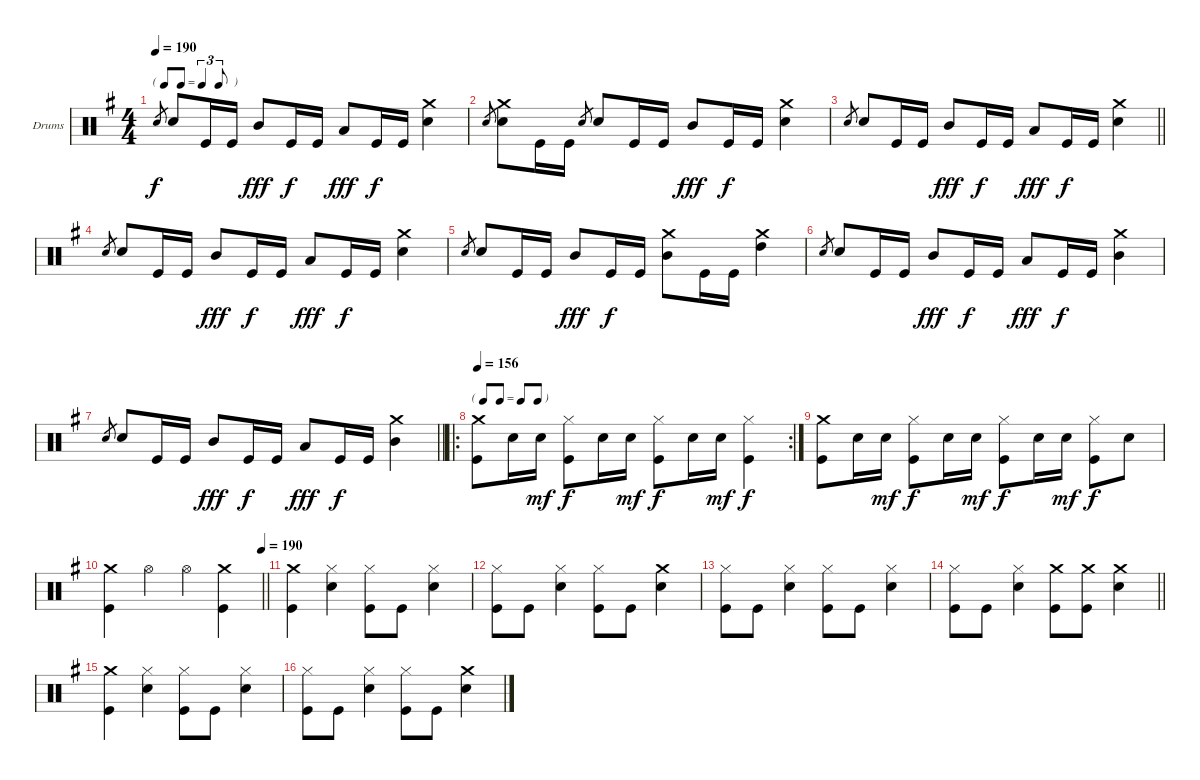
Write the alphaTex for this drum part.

\bracketExtendMode groupsimilarinstruments
\firstSystemTrackNameOrientation horizontal
\otherSystemsTrackNameOrientation horizontal
\track ("Drums" "Drums") {instrument percussion}
\staff {score}
\articulation defaults
\ts (4 4)
\tf triplet8th
\tempo 190
\clef neutral
\ks g "Snare (hit) 2".8{gr dy f} "Snare (hit) 2".8 "Kick (hit)".16 "Kick (hit)".16 "Mid Tom (hit)".8{dy fff} "Kick (hit)".16{dy f} "Kick (hit)".16 "Low Tom (hit)".8{dy fff} "Kick (hit)".16{dy f} "Kick (hit)".16
("Snare (hit) 2" "Crash medium (hit)").4 |
"Snare (hit) 2".8{gr} ("Snare (hit) 2" "Crash medium (hit)").8 "Kick (hit)".16 "Kick (hit)".16 "Snare (hit) 2".8{gr} "Snare (hit) 2".8 "Kick (hit)".16 "Kick (hit)".16 "Mid Tom (hit)".8{dy fff} "Kick (hit)".16{dy f} "Kick (hit)".16 ("Snare (hit) 2" "Crash medium (hit)").4 |
\barLineRight lightlight "Snare (hit) 2".8{gr} "Snare (hit) 2".8 "Kick (hit)".16 "Kick (hit)".16 "Mid Tom (hit)".8{dy fff} "Kick (hit)".16{dy f} "Kick (hit)".16 "Low Tom (hit)".8{dy fff} "Kick (hit)".16{dy f} "Kick (hit)".16
("Snare (hit) 2" "Crash medium (hit)").4 |
"Snare (hit) 2".8{gr} "Snare (hit) 2".8 "Kick (hit)".16 "Kick (hit)".16 "Mid Tom (hit)".8{dy fff} "Kick (hit)".16{dy f} "Kick (hit)".16 "Low Tom (hit)".8{dy fff} "Kick (hit)".16{dy f} "Kick (hit)".16 ("Snare (hit) 2" "Crash medium (hit)").4 |
"Snare (hit) 2".8{gr} "Snare (hit) 2".8 "Kick (hit)".16 "Kick (hit)".16 "Mid Tom (hit)".8{dy fff} "Kick (hit)".16{dy f} "Kick (hit)".16 ("Mid Tom (hit)" "Crash medium (hit)").8 "Kick (hit)".16 "Kick (hit)".16 ("Crash medium (hit)" "High Tom (hit)").4 |
"Snare (hit) 2".8{gr} "Snare (hit) 2".8 "Kick (hit)".16 "Kick (hit)".16 "Mid Tom (hit)".8{dy fff} "Kick (hit)".16{dy f} "Kick (hit)".16 "Low Tom (hit)".8{dy fff} "Kick (hit)".16{dy f} "Kick (hit)".16 ("Crash medium (hit)" "Mid Tom (hit)").4 |
\barLineRight lightlight "Snare (hit) 2".8{gr} "Snare (hit) 2".8 "Kick (hit)".16 "Kick (hit)".16 "Mid Tom (hit)".8{dy fff} "Kick (hit)".16{dy f} "Kick (hit)".16 "Low Tom (hit)".8{dy fff} "Kick (hit)".16{dy f} "Kick (hit)".16
("Crash medium (hit)" "Mid Tom (hit)").4 |
\ro
\rc 2
\tf none
\tempo 156
("Crash medium (hit)" "Kick (hit)").8 "Snare (hit) 2".16 "Snare (hit) 2".16{dy mf} ("Kick (hit)" "Hi-Hat (closed)").8{dy f} "Snare (hit) 2".16 "Snare (hit) 2".16{dy mf} ("Kick (hit)" "Hi-Hat (closed)").8{dy f} "Snare (hit) 2".16 "Snare (hit) 2".16{dy mf} ("Kick (hit)" "Hi-Hat (closed)").4{dy f} |
("Crash medium (hit)" "Kick (hit)").8 "Snare (hit) 2".16 "Snare (hit) 2".16{dy mf} ("Kick (hit)" "Hi-Hat (closed)").8{dy f} "Snare (hit) 2".16 "Snare (hit) 2".16{dy mf} ("Kick (hit)" "Hi-Hat (closed)").8{dy f} "Snare (hit) 2".16 "Snare (hit) 2".16{dy mf} ("Kick (hit)" "Hi-Hat (closed)").8{dy f} "Snare (hit) 2".8 |
\tempo (190 1)
\barLineRight lightlight
("Crash medium (hit)" "Kick (hit)").4 "Hi-Hat (open)".4 "Hi-Hat (open)".4 ("Crash medium (hit)" "Kick (hit)").4 |
("Crash medium (hit)" "Kick (hit)").4 ("Snare (hit) 2" "Hi-Hat (closed)").4 ("Kick (hit)" "Hi-Hat (closed)").8 "Kick (hit)".8 ("Snare (hit) 2" "Hi-Hat (closed)").4 |
("Kick (hit)" "Hi-Hat (closed)").8 "Kick (hit)".8 ("Snare (hit) 2" "Hi-Hat (closed)").4 ("Kick (hit)" "Hi-Hat (closed)").8 "Kick (hit)".8 ("Crash medium (hit)" "Snare (hit) 2").4 |
("Kick (hit)" "Hi-Hat (closed)").8 "Kick (hit)".8 ("Snare (hit) 2" "Hi-Hat (closed)").4 ("Kick (hit)" "Hi-Hat (closed)").8 "Kick (hit)".8 ("Snare (hit) 2" "Hi-Hat (closed)").4 |
\barLineRight lightlight
("Kick (hit)" "Hi-Hat (closed)").8 "Kick (hit)".8 ("Snare (hit) 2" "Hi-Hat (closed)").4 ("Crash medium (hit)" "Kick (hit)").8 ("Crash medium (hit)" "Kick (hit)").8 ("Crash medium (hit)" "Snare (hit) 2").4 |
("Crash medium (hit)" "Kick (hit)").4 ("Snare (hit) 2" "Hi-Hat (closed)").4 ("Kick (hit)" "Hi-Hat (closed)").8 "Kick (hit)".8 ("Snare (hit) 2" "Hi-Hat (closed)").4 |
("Kick (hit)" "Hi-Hat (closed)").8 "Kick (hit)".8 ("Snare (hit) 2" "Hi-Hat (closed)").4 ("Kick (hit)" "Hi-Hat (closed)").8 "Kick (hit)".8 ("Crash medium (hit)" "Snare (hit) 2").4
